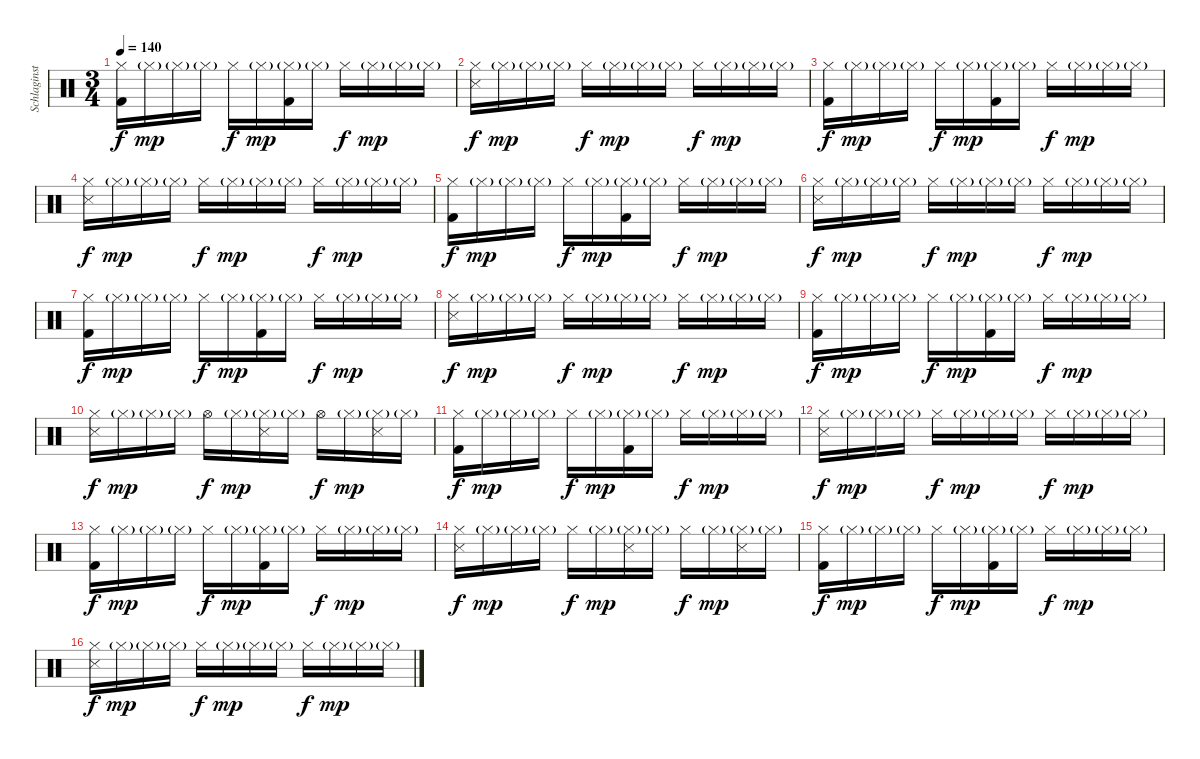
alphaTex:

\track ("Schlaginstrumente - Auswahl" "Schlaginst") {instrument percussion}
\staff {score}
\articulation defaults
\ts (3 4)
\tempo 140
\clef neutral
\ks c
("Hi-Hat (closed)" "Kick (hit) 2").16{dy f} "Hi-Hat (closed)"{g}.16{dy mp} "Hi-Hat (closed)"{g}.16 "Hi-Hat (closed)"{g}.16 "Hi-Hat (closed)".16{dy f} "Hi-Hat (closed)"{g}.16{dy mp} ("Hi-Hat (closed)"{g} "Kick (hit) 2").16 "Hi-Hat (closed)"{g}.16 "Hi-Hat (closed)".16{dy f} "Hi-Hat (closed)"{g}.16{dy mp} "Hi-Hat (closed)"{g}.16 "Hi-Hat (closed)"{g}.16 |
("Hi-Hat (closed)" "Snare (side stick) 3").16{dy f} "Hi-Hat (closed)"{g}.16{dy mp} "Hi-Hat (closed)"{g}.16 "Hi-Hat (closed)"{g}.16 "Hi-Hat (closed)".16{dy f} "Hi-Hat (closed)"{g}.16{dy mp} "Hi-Hat (closed)"{g}.16 "Hi-Hat (closed)"{g}.16 "Hi-Hat (closed)".16{dy f} "Hi-Hat (closed)"{g}.16{dy mp} "Hi-Hat (closed)"{g}.16 "Hi-Hat (closed)"{g}.16 |
("Hi-Hat (closed)" "Kick (hit) 2").16{dy f} "Hi-Hat (closed)"{g}.16{dy mp} "Hi-Hat (closed)"{g}.16 "Hi-Hat (closed)"{g}.16 "Hi-Hat (closed)".16{dy f} "Hi-Hat (closed)"{g}.16{dy mp} ("Hi-Hat (closed)"{g} "Kick (hit) 2").16 "Hi-Hat (closed)"{g}.16 "Hi-Hat (closed)".16{dy f} "Hi-Hat (closed)"{g}.16{dy mp} "Hi-Hat (closed)"{g}.16 "Hi-Hat (closed)"{g}.16 |
("Hi-Hat (closed)" "Snare (side stick) 3").16{dy f} "Hi-Hat (closed)"{g}.16{dy mp} "Hi-Hat (closed)"{g}.16 "Hi-Hat (closed)"{g}.16 "Hi-Hat (closed)".16{dy f} "Hi-Hat (closed)"{g}.16{dy mp} "Hi-Hat (closed)"{g}.16 "Hi-Hat (closed)"{g}.16 "Hi-Hat (closed)".16{dy f} "Hi-Hat (closed)"{g}.16{dy mp} "Hi-Hat (closed)"{g}.16 "Hi-Hat (closed)"{g}.16 |
("Hi-Hat (closed)" "Kick (hit) 2").16{dy f} "Hi-Hat (closed)"{g}.16{dy mp} "Hi-Hat (closed)"{g}.16 "Hi-Hat (closed)"{g}.16 "Hi-Hat (closed)".16{dy f} "Hi-Hat (closed)"{g}.16{dy mp} ("Hi-Hat (closed)"{g} "Kick (hit) 2").16 "Hi-Hat (closed)"{g}.16 "Hi-Hat (closed)".16{dy f} "Hi-Hat (closed)"{g}.16{dy mp} "Hi-Hat (closed)"{g}.16 "Hi-Hat (closed)"{g}.16 |
("Hi-Hat (closed)" "Snare (side stick) 3").16{dy f} "Hi-Hat (closed)"{g}.16{dy mp} "Hi-Hat (closed)"{g}.16 "Hi-Hat (closed)"{g}.16 "Hi-Hat (closed)".16{dy f} "Hi-Hat (closed)"{g}.16{dy mp} "Hi-Hat (closed)"{g}.16 "Hi-Hat (closed)"{g}.16 "Hi-Hat (closed)".16{dy f} "Hi-Hat (closed)"{g}.16{dy mp} "Hi-Hat (closed)"{g}.16 "Hi-Hat (closed)"{g}.16 |
("Hi-Hat (closed)" "Kick (hit) 2").16{dy f} "Hi-Hat (closed)"{g}.16{dy mp} "Hi-Hat (closed)"{g}.16 "Hi-Hat (closed)"{g}.16 "Hi-Hat (closed)".16{dy f} "Hi-Hat (closed)"{g}.16{dy mp} ("Hi-Hat (closed)"{g} "Kick (hit) 2").16 "Hi-Hat (closed)"{g}.16 "Hi-Hat (closed)".16{dy f} "Hi-Hat (closed)"{g}.16{dy mp} "Hi-Hat (closed)"{g}.16 "Hi-Hat (closed)"{g}.16 |
("Hi-Hat (closed)" "Snare (side stick) 3").16{dy f} "Hi-Hat (closed)"{g}.16{dy mp} "Hi-Hat (closed)"{g}.16 "Hi-Hat (closed)"{g}.16 "Hi-Hat (closed)".16{dy f} "Hi-Hat (closed)"{g}.16{dy mp} "Hi-Hat (closed)"{g}.16 "Hi-Hat (closed)"{g}.16 "Hi-Hat (closed)".16{dy f} "Hi-Hat (closed)"{g}.16{dy mp} "Hi-Hat (closed)"{g}.16 "Hi-Hat (closed)"{g}.16 |
("Hi-Hat (closed)" "Kick (hit) 2").16{dy f} "Hi-Hat (closed)"{g}.16{dy mp} "Hi-Hat (closed)"{g}.16 "Hi-Hat (closed)"{g}.16 "Hi-Hat (closed)".16{dy f} "Hi-Hat (closed)"{g}.16{dy mp} ("Hi-Hat (closed)"{g} "Kick (hit) 2").16 "Hi-Hat (closed)"{g}.16 "Hi-Hat (closed)".16{dy f} "Hi-Hat (closed)"{g}.16{dy mp} "Hi-Hat (closed)"{g}.16 "Hi-Hat (closed)"{g}.16 |
("Hi-Hat (closed)" "Snare (side stick) 3").16{dy f} "Hi-Hat (closed)"{g}.16{dy mp} "Hi-Hat (closed)"{g}.16 "Hi-Hat (closed)"{g}.16 "Hi-Hat (open)".16{dy f} "Hi-Hat (closed)"{g}.16{dy mp} ("Hi-Hat (closed)"{g} "Snare (side stick) 3").16 "Hi-Hat (closed)"{g}.16 "Hi-Hat (open)".16{dy f} "Hi-Hat (closed)"{g}.16{dy mp} ("Hi-Hat (closed)"{g} "Snare (side stick) 3").16 "Hi-Hat (closed)"{g}.16 |
("Hi-Hat (closed)" "Kick (hit) 2").16{dy f} "Hi-Hat (closed)"{g}.16{dy mp} "Hi-Hat (closed)"{g}.16 "Hi-Hat (closed)"{g}.16 "Hi-Hat (closed)".16{dy f} "Hi-Hat (closed)"{g}.16{dy mp} ("Hi-Hat (closed)"{g} "Kick (hit) 2").16 "Hi-Hat (closed)"{g}.16 "Hi-Hat (closed)".16{dy f} "Hi-Hat (closed)"{g}.16{dy mp} "Hi-Hat (closed)"{g}.16 "Hi-Hat (closed)"{g}.16 |
("Hi-Hat (closed)" "Snare (side stick) 3").16{dy f} "Hi-Hat (closed)"{g}.16{dy mp} "Hi-Hat (closed)"{g}.16 "Hi-Hat (closed)"{g}.16 "Hi-Hat (closed)".16{dy f} "Hi-Hat (closed)"{g}.16{dy mp} "Hi-Hat (closed)"{g}.16 "Hi-Hat (closed)"{g}.16 "Hi-Hat (closed)".16{dy f} "Hi-Hat (closed)"{g}.16{dy mp} "Hi-Hat (closed)"{g}.16 "Hi-Hat (closed)"{g}.16 |
("Hi-Hat (closed)" "Kick (hit) 2").16{dy f} "Hi-Hat (closed)"{g}.16{dy mp} "Hi-Hat (closed)"{g}.16 "Hi-Hat (closed)"{g}.16 "Hi-Hat (closed)".16{dy f} "Hi-Hat (closed)"{g}.16{dy mp} ("Hi-Hat (closed)"{g} "Kick (hit) 2").16 "Hi-Hat (closed)"{g}.16 "Hi-Hat (closed)".16{dy f} "Hi-Hat (closed)"{g}.16{dy mp} "Hi-Hat (closed)"{g}.16 "Hi-Hat (closed)"{g}.16 |
("Hi-Hat (closed)" "Snare (side stick) 3").16{dy f} "Hi-Hat (closed)"{g}.16{dy mp} "Hi-Hat (closed)"{g}.16 "Hi-Hat (closed)"{g}.16 "Hi-Hat (closed)".16{dy f} "Hi-Hat (closed)"{g}.16{dy mp} ("Hi-Hat (closed)"{g} "Snare (side stick) 3").16 "Hi-Hat (closed)"{g}.16 "Hi-Hat (closed)".16{dy f} "Hi-Hat (closed)"{g}.16{dy mp} ("Hi-Hat (closed)"{g} "Snare (side stick) 3").16 "Hi-Hat (closed)"{g}.16 |
("Hi-Hat (closed)" "Kick (hit) 2").16{dy f} "Hi-Hat (closed)"{g}.16{dy mp} "Hi-Hat (closed)"{g}.16 "Hi-Hat (closed)"{g}.16 "Hi-Hat (closed)".16{dy f} "Hi-Hat (closed)"{g}.16{dy mp} ("Hi-Hat (closed)"{g} "Kick (hit) 2").16 "Hi-Hat (closed)"{g}.16 "Hi-Hat (closed)".16{dy f} "Hi-Hat (closed)"{g}.16{dy mp} "Hi-Hat (closed)"{g}.16 "Hi-Hat (closed)"{g}.16 |
("Hi-Hat (closed)" "Snare (side stick) 3").16{dy f} "Hi-Hat (closed)"{g}.16{dy mp} "Hi-Hat (closed)"{g}.16 "Hi-Hat (closed)"{g}.16 "Hi-Hat (closed)".16{dy f} "Hi-Hat (closed)"{g}.16{dy mp} "Hi-Hat (closed)"{g}.16 "Hi-Hat (closed)"{g}.16 "Hi-Hat (closed)".16{dy f} "Hi-Hat (closed)"{g}.16{dy mp} "Hi-Hat (closed)"{g}.16 "Hi-Hat (closed)"{g}.16
